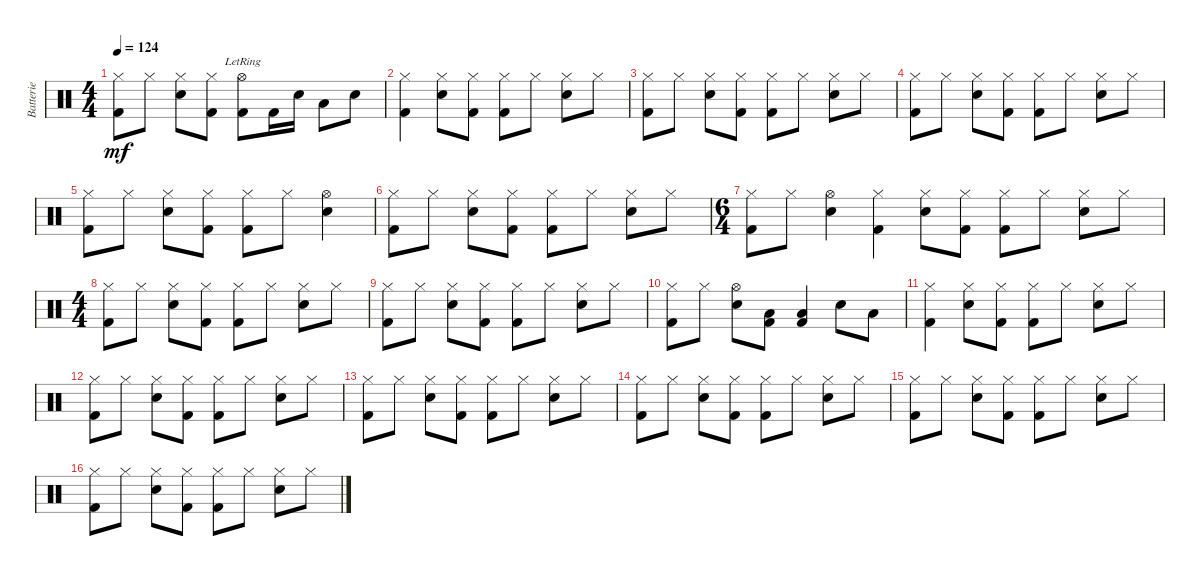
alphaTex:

\track ("Batterie" "Batterie") {instrument percussion}
\staff {score}
\articulation defaults
\ts (4 4)
\tempo 124
\clef neutral
\ks c
("Hi-Hat (closed)" "Kick (hit) 2").8{dy mf} "Hi-Hat (closed)".8 ("Hi-Hat (closed)" "Snare (hit) 2").8 ("Hi-Hat (closed)" "Kick (hit) 2").8 ("Hi-Hat (open)"{lr} "Kick (hit) 2").8 "Kick (hit) 2".16 "Snare (hit) 2".16 "Low Floor Tom (hit)".8 "Snare (hit) 2".8 |
("Hi-Hat (closed)" "Kick (hit) 2").4 ("Hi-Hat (closed)" "Snare (hit) 2").8 ("Hi-Hat (closed)" "Kick (hit) 2").8 ("Hi-Hat (closed)" "Kick (hit) 2").8 "Hi-Hat (closed)".8 ("Hi-Hat (closed)" "Snare (hit) 2").8 "Hi-Hat (closed)".8 |
("Hi-Hat (closed)" "Kick (hit) 2").8 "Hi-Hat (closed)".8 ("Hi-Hat (closed)" "Snare (hit) 2").8 ("Hi-Hat (closed)" "Kick (hit) 2").8 ("Hi-Hat (closed)" "Kick (hit) 2").8 "Hi-Hat (closed)".8 ("Hi-Hat (closed)" "Snare (hit) 2").8 "Hi-Hat (closed)".8 |
("Hi-Hat (closed)" "Kick (hit) 2").8 "Hi-Hat (closed)".8 ("Hi-Hat (closed)" "Snare (hit) 2").8 ("Hi-Hat (closed)" "Kick (hit) 2").8 ("Hi-Hat (closed)" "Kick (hit) 2").8 "Hi-Hat (closed)".8 ("Hi-Hat (closed)" "Snare (hit) 2").8 "Hi-Hat (closed)".8 |
("Hi-Hat (closed)" "Kick (hit) 2").8 "Hi-Hat (closed)".8 ("Hi-Hat (closed)" "Snare (hit) 2").8 ("Hi-Hat (closed)" "Kick (hit) 2").8 ("Hi-Hat (closed)" "Kick (hit) 2").8 "Hi-Hat (closed)".8 ("Hi-Hat (open)" "Snare (hit) 2").4 |
("Hi-Hat (closed)" "Kick (hit) 2").8 "Hi-Hat (closed)".8 ("Hi-Hat (closed)" "Snare (hit) 2").8 ("Hi-Hat (closed)" "Kick (hit) 2").8 ("Hi-Hat (closed)" "Kick (hit) 2").8 "Hi-Hat (closed)".8 ("Hi-Hat (closed)" "Snare (hit) 2").8 "Hi-Hat (closed)".8 |
\ts (6 4)
("Hi-Hat (closed)" "Kick (hit) 2").8 "Hi-Hat (closed)".8 ("Hi-Hat (open)" "Snare (hit) 2").4 ("Hi-Hat (closed)" "Kick (hit) 2").4 ("Hi-Hat (closed)" "Snare (hit) 2").8 ("Hi-Hat (closed)" "Kick (hit) 2").8 ("Hi-Hat (closed)" "Kick (hit) 2").8 "Hi-Hat (closed)".8 ("Hi-Hat (closed)" "Snare (hit) 2").8 "Hi-Hat (closed)".8 |
\ts (4 4)
("Hi-Hat (closed)" "Kick (hit) 2").8 "Hi-Hat (closed)".8 ("Hi-Hat (closed)" "Snare (hit) 2").8 ("Hi-Hat (closed)" "Kick (hit) 2").8 ("Hi-Hat (closed)" "Kick (hit) 2").8 "Hi-Hat (closed)".8 ("Hi-Hat (closed)" "Snare (hit) 2").8 "Hi-Hat (closed)".8 |
("Hi-Hat (closed)" "Kick (hit) 2").8 "Hi-Hat (closed)".8 ("Hi-Hat (closed)" "Snare (hit) 2").8 ("Hi-Hat (closed)" "Kick (hit) 2").8 ("Hi-Hat (closed)" "Kick (hit) 2").8 "Hi-Hat (closed)".8 ("Hi-Hat (closed)" "Snare (hit) 2").8 "Hi-Hat (closed)".8 |
("Hi-Hat (closed)" "Kick (hit) 2").8 "Hi-Hat (closed)".8 ("Hi-Hat (open)" "Snare (hit) 2").8 ("Low Floor Tom (hit)" "Kick (hit) 2").8 ("Low Floor Tom (hit)" "Kick (hit) 2").4 "Snare (hit) 2".8 "Low Floor Tom (hit)".8 |
("Hi-Hat (closed)" "Kick (hit) 2").4 ("Hi-Hat (closed)" "Snare (hit) 2").8 ("Hi-Hat (closed)" "Kick (hit) 2").8 ("Hi-Hat (closed)" "Kick (hit) 2").8 "Hi-Hat (closed)".8 ("Hi-Hat (closed)" "Snare (hit) 2").8 "Hi-Hat (closed)".8 |
("Hi-Hat (closed)" "Kick (hit) 2").8 "Hi-Hat (closed)".8 ("Hi-Hat (closed)" "Snare (hit) 2").8 ("Hi-Hat (closed)" "Kick (hit) 2").8 ("Hi-Hat (closed)" "Kick (hit) 2").8 "Hi-Hat (closed)".8 ("Hi-Hat (closed)" "Snare (hit) 2").8 "Hi-Hat (closed)".8 |
("Hi-Hat (closed)" "Kick (hit) 2").8 "Hi-Hat (closed)".8 ("Hi-Hat (closed)" "Snare (hit) 2").8 ("Hi-Hat (closed)" "Kick (hit) 2").8 ("Hi-Hat (closed)" "Kick (hit) 2").8 "Hi-Hat (closed)".8 ("Hi-Hat (closed)" "Snare (hit) 2").8 "Hi-Hat (closed)".8 |
("Hi-Hat (closed)" "Kick (hit) 2").8 "Hi-Hat (closed)".8 ("Hi-Hat (closed)" "Snare (hit) 2").8 ("Hi-Hat (closed)" "Kick (hit) 2").8 ("Hi-Hat (closed)" "Kick (hit) 2").8 "Hi-Hat (closed)".8 ("Hi-Hat (closed)" "Snare (hit) 2").8 "Hi-Hat (closed)".8 |
("Hi-Hat (closed)" "Kick (hit) 2").8 "Hi-Hat (closed)".8 ("Hi-Hat (closed)" "Snare (hit) 2").8 ("Hi-Hat (closed)" "Kick (hit) 2").8 ("Hi-Hat (closed)" "Kick (hit) 2").8 "Hi-Hat (closed)".8 ("Hi-Hat (closed)" "Snare (hit) 2").8 "Hi-Hat (closed)".8 |
("Hi-Hat (closed)" "Kick (hit) 2").8 "Hi-Hat (closed)".8 ("Hi-Hat (closed)" "Snare (hit) 2").8 ("Hi-Hat (closed)" "Kick (hit) 2").8 ("Hi-Hat (closed)" "Kick (hit) 2").8 "Hi-Hat (closed)".8 ("Hi-Hat (closed)" "Snare (hit) 2").8 "Hi-Hat (closed)".8
